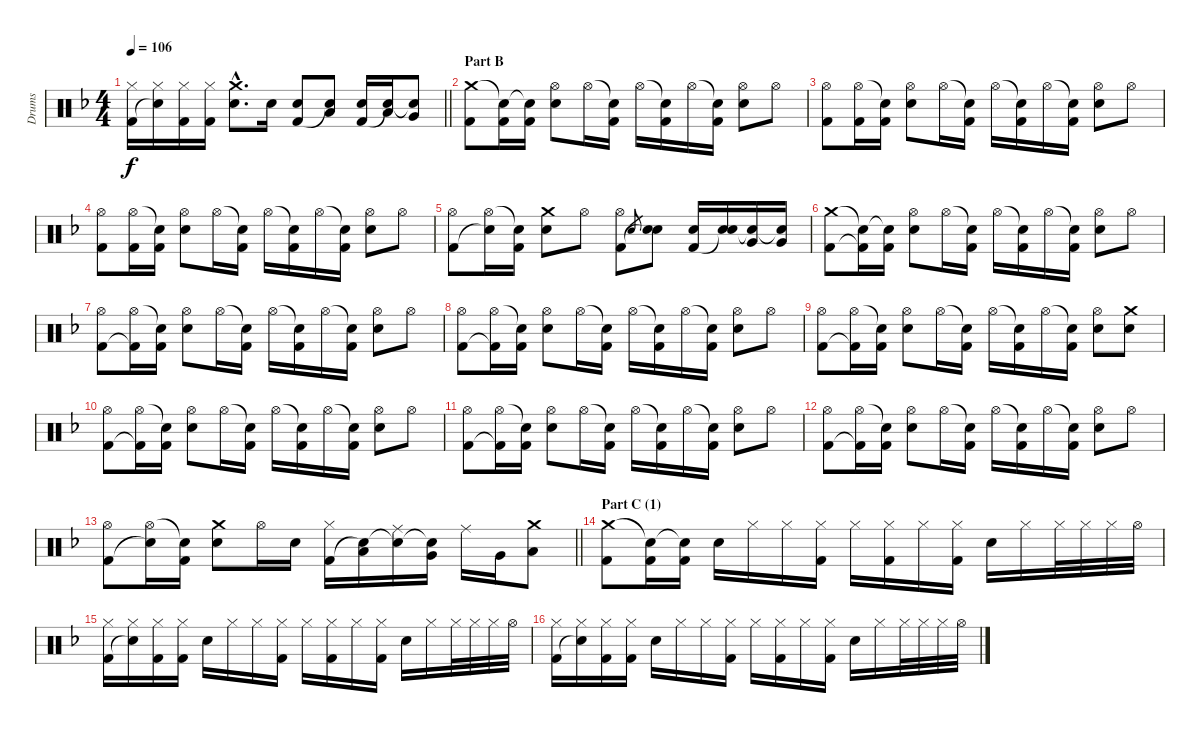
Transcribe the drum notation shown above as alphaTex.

\track ("Drums" "Drums") {instrument percussion}
\staff {score}
\articulation defaults
\ts (4 4)
\tempo 106
\clef neutral
\barLineRight lightlight
\ks f
("Hi-Hat (closed)" "Kick (hit) 2").16{dy f} ("Hi-Hat (closed)" "Snare (hit)"{t}).16 ("Hi-Hat (closed)" "Kick (hit) 2").16 ("Hi-Hat (closed)" "Kick (hit) 2").16 ("Crash medium (hit)"{hac} "Electric Snare (hit)"{hac}).8{d} "Electric Snare (hit)".16 ("Electric Snare (hit)" "Kick (hit) 2").8 ("Low Tom (hit)" "Snare (hit)"{t}).8 ("Electric Snare (hit)" "Kick (hit) 2").16 ("Low Tom (hit)" "Snare (hit)"{t}).16 ("Very Low Tom (hit)" "Snare (hit)"{t}).8 |
\section ("" "Part B")
("Crash medium (hit)" "Kick (hit) 2").8 ("Snare (hit)"{t} "Kick (hit) 2").16 ("Snare (hit)"{t} "Kick (hit) 2").16 ("Hi-Hat (open)" "Electric Snare (hit)").8 "Hi-Hat (open)".16 ("Snare (hit)"{t} "Kick (hit) 2").16 "Hi-Hat (open)".16 ("Snare (hit)"{t} "Kick (hit) 2").16 "Hi-Hat (open)".16 ("Snare (hit)"{t} "Kick (hit) 2").16 ("Hi-Hat (open)" "Electric Snare (hit)").8 "Hi-Hat (open)".8 |
("Hi-Hat (open)" "Kick (hit) 2").8 ("Hi-Hat (open)" "Kick (hit) 2").16 ("Snare (hit)"{t} "Kick (hit) 2").16 ("Hi-Hat (open)" "Electric Snare (hit)").8 "Hi-Hat (open)".16 ("Snare (hit)"{t} "Kick (hit) 2").16 "Hi-Hat (open)".16 ("Snare (hit)"{t} "Kick (hit) 2").16 "Hi-Hat (open)".16 ("Snare (hit)"{t} "Kick (hit) 2").16 ("Hi-Hat (open)" "Electric Snare (hit)").8 "Hi-Hat (open)".8 |
("Hi-Hat (open)" "Kick (hit) 2").8 ("Hi-Hat (open)" "Kick (hit) 2").16 ("Snare (hit)"{t} "Kick (hit) 2").16 ("Hi-Hat (open)" "Electric Snare (hit)").8 "Hi-Hat (open)".16 ("Snare (hit)"{t} "Kick (hit) 2").16 "Hi-Hat (open)".16 ("Snare (hit)"{t} "Kick (hit) 2").16 "Hi-Hat (open)".16 ("Snare (hit)"{t} "Kick (hit) 2").16 ("Hi-Hat (open)" "Electric Snare (hit)").8 "Hi-Hat (open)".8 |
("Hi-Hat (open)" "Kick (hit) 2").8 ("Hi-Hat (open)" "Snare (hit)"{t}).16 ("Snare (hit)"{t} "Kick (hit) 2").16 ("Crash medium (hit)" "Electric Snare (hit)").8 "Hi-Hat (open)".8 ("Hi-Hat (open)" "Kick (hit) 2").8 "Electric Snare (hit)".8{gr} ("Electric Snare (hit)" "Snare (hit)"{t}).8 ("Electric Snare (hit)" "Kick (hit) 2").16 ("Electric Snare (hit)" "Snare (hit)"{t}).16 ("Very Low Tom (hit)" "Snare (hit)"{t}).16 ("Very Low Tom (hit)" "Snare (hit)"{t}).16 |
("Crash medium (hit)" "Kick (hit) 2").8 ("Snare (hit)"{t} "Kick (hit) 2"{t}).16 ("Snare (hit)"{t} "Kick (hit) 2").16 ("Hi-Hat (open)" "Electric Snare (hit)").8 "Hi-Hat (open)".16 ("Snare (hit)"{t} "Kick (hit) 2").16 "Hi-Hat (open)".16 ("Snare (hit)"{t} "Kick (hit) 2").16 "Hi-Hat (open)".16 ("Snare (hit)"{t} "Kick (hit) 2").16 ("Hi-Hat (open)" "Electric Snare (hit)").8 "Hi-Hat (open)".8 |
("Hi-Hat (open)" "Kick (hit) 2").8 ("Hi-Hat (open)" "Kick (hit) 2"{t}).16 ("Snare (hit)"{t} "Kick (hit) 2").16 ("Hi-Hat (open)" "Electric Snare (hit)").8 "Hi-Hat (open)".16 ("Snare (hit)"{t} "Kick (hit) 2").16 "Hi-Hat (open)".16 ("Snare (hit)"{t} "Kick (hit) 2").16 "Hi-Hat (open)".16 ("Snare (hit)"{t} "Kick (hit) 2").16 ("Hi-Hat (open)" "Electric Snare (hit)").8 "Hi-Hat (open)".8 |
("Hi-Hat (open)" "Kick (hit) 2").8 ("Hi-Hat (open)" "Kick (hit) 2"{t}).16 ("Snare (hit)"{t} "Kick (hit) 2").16 ("Hi-Hat (open)" "Electric Snare (hit)").8 "Hi-Hat (open)".16 ("Snare (hit)"{t} "Kick (hit) 2").16 "Hi-Hat (open)".16 ("Snare (hit)"{t} "Kick (hit) 2").16 "Hi-Hat (open)".16 ("Snare (hit)"{t} "Kick (hit) 2").16 ("Hi-Hat (open)" "Electric Snare (hit)").8 "Hi-Hat (open)".8 |
("Hi-Hat (open)" "Kick (hit) 2").8 ("Hi-Hat (open)" "Kick (hit) 2"{t}).16 ("Snare (hit)"{t} "Kick (hit) 2").16 ("Hi-Hat (open)" "Electric Snare (hit)").8 "Hi-Hat (open)".16 ("Snare (hit)"{t} "Kick (hit) 2").16 "Hi-Hat (open)".16 ("Snare (hit)"{t} "Kick (hit) 2").16 "Hi-Hat (open)".16 ("Snare (hit)"{t} "Kick (hit) 2").16 ("Hi-Hat (open)" "Electric Snare (hit)").8 ("Crash medium (hit)" "Electric Snare (hit)").8 |
("Hi-Hat (open)" "Kick (hit) 2").8 ("Hi-Hat (open)" "Kick (hit) 2"{t}).16 ("Snare (hit)"{t} "Kick (hit) 2").16 ("Hi-Hat (open)" "Electric Snare (hit)").8 "Hi-Hat (open)".16 ("Snare (hit)"{t} "Kick (hit) 2").16 "Hi-Hat (open)".16 ("Snare (hit)"{t} "Kick (hit) 2").16 "Hi-Hat (open)".16 ("Snare (hit)"{t} "Kick (hit) 2").16 ("Hi-Hat (open)" "Electric Snare (hit)").8 "Hi-Hat (open)".8 |
("Hi-Hat (open)" "Kick (hit) 2").8 ("Hi-Hat (open)" "Kick (hit) 2"{t}).16 ("Snare (hit)"{t} "Kick (hit) 2").16 ("Hi-Hat (open)" "Electric Snare (hit)").8 "Hi-Hat (open)".16 ("Snare (hit)"{t} "Kick (hit) 2").16 "Hi-Hat (open)".16 ("Snare (hit)"{t} "Kick (hit) 2").16 "Hi-Hat (open)".16 ("Snare (hit)"{t} "Kick (hit) 2").16 ("Hi-Hat (open)" "Electric Snare (hit)").8 "Hi-Hat (open)".8 |
("Hi-Hat (open)" "Kick (hit) 2").8 ("Hi-Hat (open)" "Kick (hit) 2"{t}).16 ("Snare (hit)"{t} "Kick (hit) 2").16 ("Hi-Hat (open)" "Electric Snare (hit)").8 "Hi-Hat (open)".16 ("Snare (hit)"{t} "Kick (hit) 2").16 "Hi-Hat (open)".16 ("Snare (hit)"{t} "Kick (hit) 2").16 "Hi-Hat (open)".16 ("Snare (hit)"{t} "Kick (hit) 2").16 ("Hi-Hat (open)" "Electric Snare (hit)").8 "Hi-Hat (open)".8 |
\barLineRight lightlight
("Hi-Hat (open)" "Kick (hit) 2").8 ("Hi-Hat (open)" "Snare (hit)"{t}).16 ("Snare (hit)"{t} "Kick (hit) 2").16 ("Crash medium (hit)" "Electric Snare (hit)").8 "Hi-Hat (open)".16 "Electric Snare (hit)".16 ("Hi-Hat (closed)" "Kick (hit) 2").16 ("Low Tom (hit)" "Snare (hit)"{t}).16 ("Ride (middle)" "Snare (hit)"{t}).16 ("Very Low Tom (hit)" "Snare (hit)"{t}).16 "Ride (middle)".16 "Very Low Tom (hit)".16 ("Crash medium (hit)" "Low Floor Tom (hit)").8 |
\section ("" "Part C (1)")
("Crash medium (hit)" "Kick (hit) 2").8 ("Snare (hit)"{t} "Kick (hit) 2").16 ("Snare (hit)"{t} "Kick (hit) 2").16 "Electric Snare (hit)".16 "Hi-Hat (closed)".16 "Hi-Hat (closed)".16 ("Hi-Hat (closed)" "Kick (hit) 2").16 "Hi-Hat (closed)".16 ("Hi-Hat (closed)" "Kick (hit) 2").16 "Hi-Hat (closed)".16 ("Hi-Hat (closed)" "Kick (hit) 2").16 "Electric Snare (hit)".16 "Hi-Hat (closed)".16 "Hi-Hat (closed)".32 "Hi-Hat (closed)".32 "Hi-Hat (closed)".32 "Hi-Hat (open)".32 |
("Hi-Hat (closed)" "Kick (hit) 2").16 ("Hi-Hat (closed)" "Snare (hit)"{t}).16 ("Hi-Hat (closed)" "Kick (hit) 2").16 ("Hi-Hat (closed)" "Kick (hit) 2").16 "Electric Snare (hit)".16 "Hi-Hat (closed)".16 "Hi-Hat (closed)".16 ("Hi-Hat (closed)" "Kick (hit) 2").16 "Hi-Hat (closed)".16 ("Hi-Hat (closed)" "Kick (hit) 2").16 "Hi-Hat (closed)".16 ("Hi-Hat (closed)" "Kick (hit) 2").16 "Electric Snare (hit)".16 "Hi-Hat (closed)".16 "Hi-Hat (closed)".32 "Hi-Hat (closed)".32 "Hi-Hat (closed)".32 "Hi-Hat (open)".32 |
("Hi-Hat (closed)" "Kick (hit) 2").16 ("Hi-Hat (closed)" "Snare (hit)"{t}).16 ("Hi-Hat (closed)" "Kick (hit) 2").16 ("Hi-Hat (closed)" "Kick (hit) 2").16 "Electric Snare (hit)".16 "Hi-Hat (closed)".16 "Hi-Hat (closed)".16 ("Hi-Hat (closed)" "Kick (hit) 2").16 "Hi-Hat (closed)".16 ("Hi-Hat (closed)" "Kick (hit) 2").16 "Hi-Hat (closed)".16 ("Hi-Hat (closed)" "Kick (hit) 2").16 "Electric Snare (hit)".16 "Hi-Hat (closed)".16 "Hi-Hat (closed)".32 "Hi-Hat (closed)".32 "Hi-Hat (closed)".32 "Hi-Hat (open)".32
